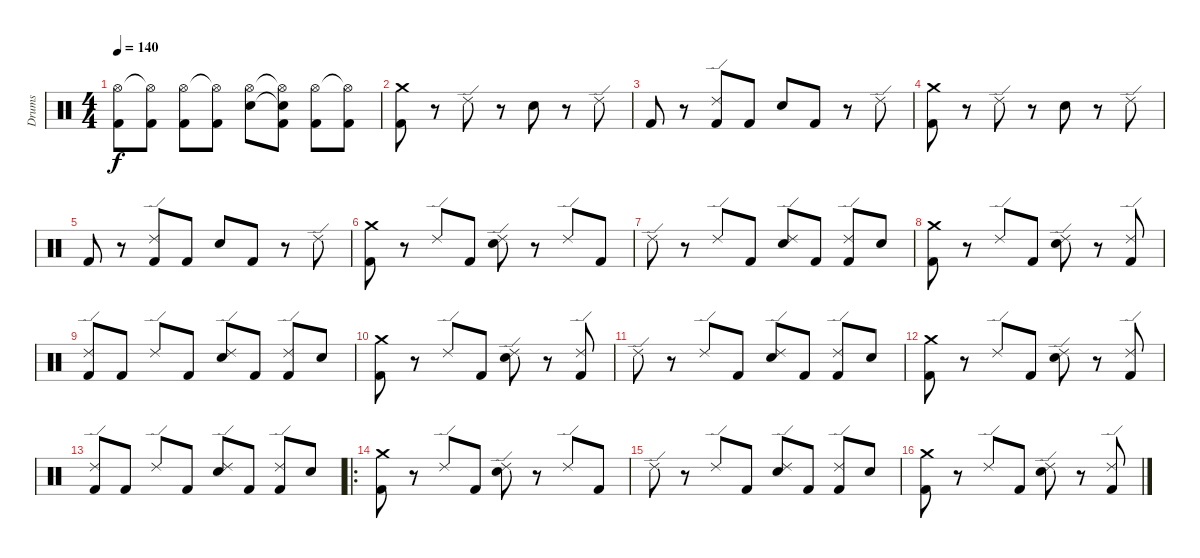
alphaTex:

\track ("Drums" "Drums") {instrument percussion}
\staff {score}
\articulation defaults
\ts (4 4)
\tempo 140
\clef neutral
\ks c
("Hi-Hat (open)" "Kick (hit) 2"{t}).8{dy f} ("Hi-Hat (open)"{t} "Kick (hit) 2").8 ("Hi-Hat (open)" "Kick (hit) 2").8 ("Hi-Hat (open)"{t} "Kick (hit) 2").8 ("Hi-Hat (open)" "Electric Snare (hit)").8 ("Hi-Hat (open)"{t} "Snare (hit)"{t} "Kick (hit) 2").8 ("Hi-Hat (open)" "Kick (hit) 2").8 ("Hi-Hat (open)"{t} "Kick (hit) 2").8 |
("Crash medium (hit)" "Kick (hit) 2").8 r.8 "Ride (edge) 2".8 r.8 "Electric Snare (hit)".8 r.8 "Ride (edge) 2".8 |
"Kick (hit) 2".8 r.8 ("Ride (edge) 2" "Kick (hit) 2").8 "Kick (hit) 2".8 "Electric Snare (hit)".8 "Kick (hit) 2".8 r.8 "Ride (edge) 2".8 |
("Crash medium (hit)" "Kick (hit) 2").8 r.8 "Ride (edge) 2".8 r.8 "Electric Snare (hit)".8 r.8 "Ride (edge) 2".8 |
"Kick (hit) 2".8 r.8 ("Ride (edge) 2" "Kick (hit) 2").8 "Kick (hit) 2".8 "Electric Snare (hit)".8 "Kick (hit) 2".8 r.8 "Ride (edge) 2".8 |
("Crash medium (hit)" "Kick (hit) 2").8 r.8 "Ride (edge) 2".8 "Kick (hit) 2".8 ("Ride (edge) 2" "Electric Snare (hit)").8 r.8 "Ride (edge) 2".8 "Kick (hit) 2".8 |
"Ride (edge) 2".8 r.8 "Ride (edge) 2".8 "Kick (hit) 2".8 ("Ride (edge) 2" "Electric Snare (hit)").8 "Kick (hit) 2".8 ("Ride (edge) 2" "Kick (hit) 2").8 "Electric Snare (hit)".8 |
("Crash medium (hit)" "Kick (hit) 2").8 r.8 "Ride (edge) 2".8 "Kick (hit) 2".8 ("Ride (edge) 2" "Electric Snare (hit)").8 r.8 ("Ride (edge) 2" "Kick (hit) 2").8 |
("Ride (edge) 2" "Kick (hit) 2").8 "Kick (hit) 2".8 "Ride (edge) 2".8 "Kick (hit) 2".8 ("Ride (edge) 2" "Electric Snare (hit)").8 "Kick (hit) 2".8 ("Ride (edge) 2" "Kick (hit) 2").8 "Electric Snare (hit)".8 |
("Crash medium (hit)" "Kick (hit) 2").8 r.8 "Ride (edge) 2".8 "Kick (hit) 2".8 ("Ride (edge) 2" "Electric Snare (hit)").8 r.8 ("Ride (edge) 2" "Kick (hit) 2").8 |
"Ride (edge) 2".8 r.8 "Ride (edge) 2".8 "Kick (hit) 2".8 ("Ride (edge) 2" "Electric Snare (hit)").8 "Kick (hit) 2".8 ("Ride (edge) 2" "Kick (hit) 2").8 "Electric Snare (hit)".8 |
("Crash medium (hit)" "Kick (hit) 2").8 r.8 "Ride (edge) 2".8 "Kick (hit) 2".8 ("Ride (edge) 2" "Electric Snare (hit)").8 r.8 ("Ride (edge) 2" "Kick (hit) 2").8 |
("Ride (edge) 2" "Kick (hit) 2").8 "Kick (hit) 2".8 "Ride (edge) 2".8 "Kick (hit) 2".8 ("Ride (edge) 2" "Electric Snare (hit)").8 "Kick (hit) 2".8 ("Ride (edge) 2" "Kick (hit) 2").8 "Electric Snare (hit)".8 |
\ro
("Crash medium (hit)" "Kick (hit) 2").8 r.8 "Ride (edge) 2".8 "Kick (hit) 2".8 ("Ride (edge) 2" "Electric Snare (hit)").8 r.8 "Ride (edge) 2".8 "Kick (hit) 2".8 |
"Ride (edge) 2".8 r.8 "Ride (edge) 2".8 "Kick (hit) 2".8 ("Ride (edge) 2" "Electric Snare (hit)").8 "Kick (hit) 2".8 ("Ride (edge) 2" "Kick (hit) 2").8 "Electric Snare (hit)".8 |
("Crash medium (hit)" "Kick (hit) 2").8 r.8 "Ride (edge) 2".8 "Kick (hit) 2".8 ("Ride (edge) 2" "Electric Snare (hit)").8 r.8 ("Ride (edge) 2" "Kick (hit) 2").8
